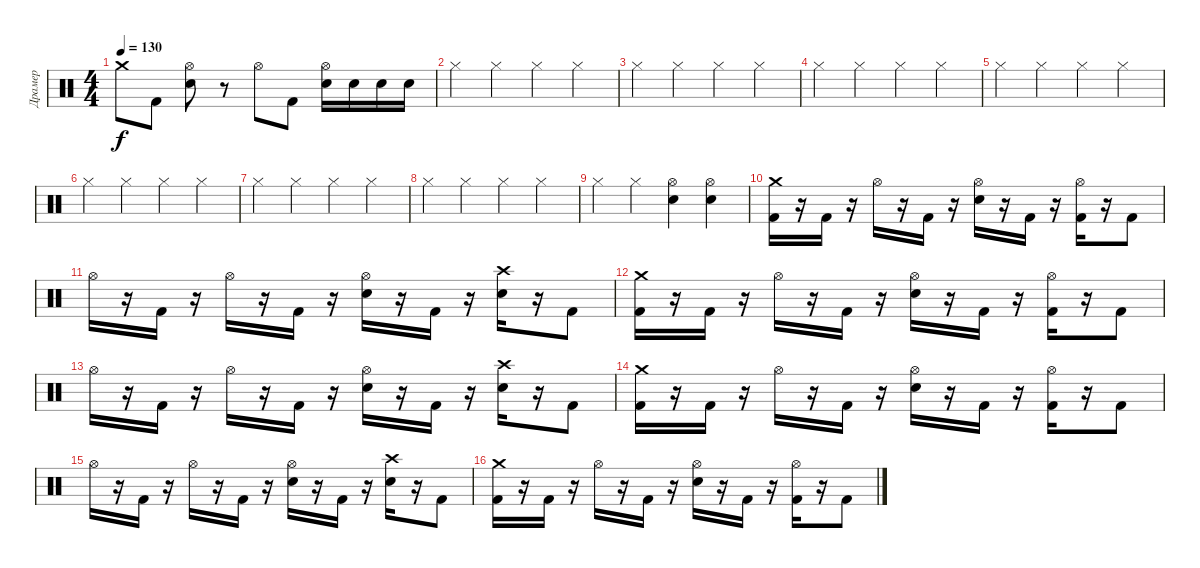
\track ("Драмер" "Драмер") {instrument percussion}
\staff {score}
\articulation defaults
\ts (4 4)
\tempo 130
\clef neutral
\ks c "Crash medium (hit)".8{dy f} "Kick (hit) 2".8
("Hi-Hat (open)" "Electric Snare (hit)").8 r.8 "Hi-Hat (open)".8 "Kick (hit) 2".8 ("Hi-Hat (open)" "Electric Snare (hit)").16 "Electric Snare (hit)".16 "Electric Snare (hit)".16 "Electric Snare (hit)".16 |
"Hi-Hat (closed)".4 "Hi-Hat (closed)".4 "Hi-Hat (closed)".4 "Hi-Hat (closed)".4 |
"Hi-Hat (closed)".4 "Hi-Hat (closed)".4 "Hi-Hat (closed)".4 "Hi-Hat (closed)".4 |
"Hi-Hat (closed)".4 "Hi-Hat (closed)".4 "Hi-Hat (closed)".4 "Hi-Hat (closed)".4 |
"Hi-Hat (closed)".4 "Hi-Hat (closed)".4 "Hi-Hat (closed)".4 "Hi-Hat (closed)".4 |
"Hi-Hat (closed)".4 "Hi-Hat (closed)".4 "Hi-Hat (closed)".4 "Hi-Hat (closed)".4 |
"Hi-Hat (closed)".4 "Hi-Hat (closed)".4 "Hi-Hat (closed)".4 "Hi-Hat (closed)".4 |
"Hi-Hat (closed)".4 "Hi-Hat (closed)".4 "Hi-Hat (closed)".4 "Hi-Hat (closed)".4 |
"Hi-Hat (closed)".4 "Hi-Hat (closed)".4 ("Electric Snare (hit)" "Hi-Hat (open)").4 ("Electric Snare (hit)" "Hi-Hat (open)").4 |
("Crash medium (hit)" "Kick (hit) 2").16 r.16 "Kick (hit) 2".16 r.16 "Hi-Hat (open)".16 r.16 "Kick (hit) 2".16 r.16 ("Hi-Hat (open)" "Electric Snare (hit)").16 r.16 "Kick (hit) 2".16 r.16 ("Hi-Hat (open)" "Kick (hit) 2").16 r.16 "Kick (hit) 2".8 |
"Hi-Hat (open)".16 r.16 "Kick (hit) 2".16 r.16 "Hi-Hat (open)".16 r.16 "Kick (hit) 2".16 r.16 ("Hi-Hat (open)" "Electric Snare (hit)").16 r.16 "Kick (hit) 2".16 r.16 ("Crash high (hit)" "Electric Snare (hit)").16 r.16 "Kick (hit) 2".8 |
("Crash medium (hit)" "Kick (hit) 2").16 r.16 "Kick (hit) 2".16 r.16 "Hi-Hat (open)".16 r.16 "Kick (hit) 2".16 r.16 ("Hi-Hat (open)" "Electric Snare (hit)").16 r.16 "Kick (hit) 2".16 r.16 ("Hi-Hat (open)" "Kick (hit) 2").16 r.16 "Kick (hit) 2".8 |
"Hi-Hat (open)".16 r.16 "Kick (hit) 2".16 r.16 "Hi-Hat (open)".16 r.16 "Kick (hit) 2".16 r.16 ("Hi-Hat (open)" "Electric Snare (hit)").16 r.16 "Kick (hit) 2".16 r.16 ("Crash high (hit)" "Electric Snare (hit)").16 r.16 "Kick (hit) 2".8 |
("Crash medium (hit)" "Kick (hit) 2").16 r.16 "Kick (hit) 2".16 r.16 "Hi-Hat (open)".16 r.16 "Kick (hit) 2".16 r.16 ("Hi-Hat (open)" "Electric Snare (hit)").16 r.16 "Kick (hit) 2".16 r.16 ("Hi-Hat (open)" "Kick (hit) 2").16 r.16 "Kick (hit) 2".8 |
"Hi-Hat (open)".16 r.16 "Kick (hit) 2".16 r.16 "Hi-Hat (open)".16 r.16 "Kick (hit) 2".16 r.16 ("Hi-Hat (open)" "Electric Snare (hit)").16 r.16 "Kick (hit) 2".16 r.16 ("Crash high (hit)" "Electric Snare (hit)").16 r.16 "Kick (hit) 2".8 |
("Crash medium (hit)" "Kick (hit) 2").16 r.16 "Kick (hit) 2".16 r.16 "Hi-Hat (open)".16 r.16 "Kick (hit) 2".16 r.16 ("Hi-Hat (open)" "Electric Snare (hit)").16 r.16 "Kick (hit) 2".16 r.16 ("Hi-Hat (open)" "Kick (hit) 2").16 r.16 "Kick (hit) 2".8
